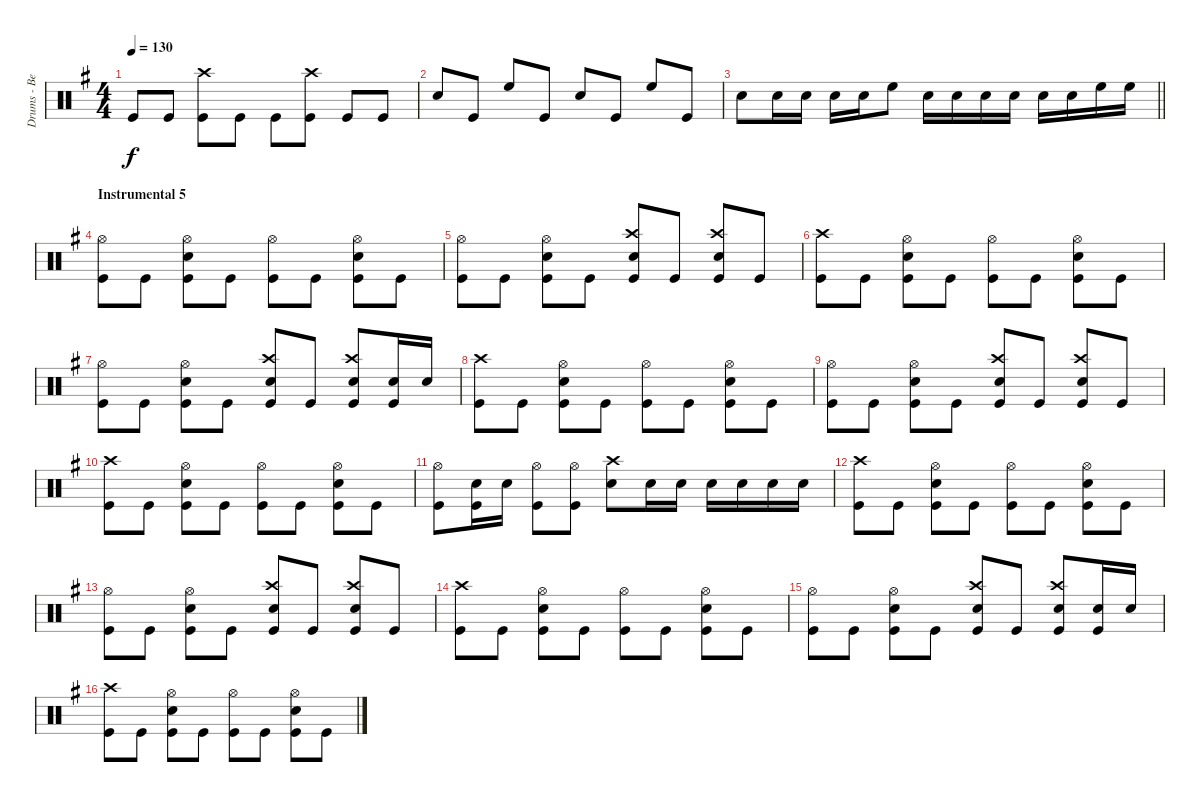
\track ("Drums - Ben Johnston" "Drums - Be") {instrument percussion}
\staff {score}
\articulation defaults
\ts (4 4)
\tempo 130
\clef neutral
\ks g "Kick (hit)".8{dy f} "Kick (hit)".8
("Crash high (hit)" "Kick (hit)").8 "Kick (hit)".8 "Kick (hit)".8 ("Crash high (hit)" "Kick (hit)").8 "Kick (hit)".8 "Kick (hit)".8 |
"Snare (hit) 2".8 "Kick (hit)".8 "High Floor Tom (hit)".8 "Kick (hit)".8 "Snare (hit) 2".8 "Kick (hit)".8 "High Floor Tom (hit)".8 "Kick (hit)".8 |
\barLineRight lightlight "Snare (hit) 2".8 "Snare (hit) 2".16 "Snare (hit) 2".16 "Snare (hit) 2".16 "Snare (hit) 2".16 "High Floor Tom (hit)".8 "Snare (hit) 2".16 "Snare (hit) 2".16 "Snare (hit) 2".16 "Snare (hit) 2".16 "Snare (hit) 2".16 "Snare (hit) 2".16 "High Floor Tom (hit)".16 "High Floor Tom (hit)".16
|
\section ("" "Instrumental 5")
("Hi-Hat (open)" "Kick (hit)").8 "Kick (hit)".8 ("Hi-Hat (open)" "Snare (hit) 2" "Kick (hit)").8 "Kick (hit)".8 ("Hi-Hat (open)" "Kick (hit)").8 "Kick (hit)".8 ("Hi-Hat (open)" "Snare (hit) 2" "Kick (hit)").8 "Kick (hit)".8 |
("Hi-Hat (open)" "Kick (hit)").8 "Kick (hit)".8 ("Hi-Hat (open)" "Snare (hit) 2" "Kick (hit)").8 "Kick (hit)".8 ("Crash high (hit)" "Snare (hit) 2" "Kick (hit)").8 "Kick (hit)".8 ("Crash high (hit)" "Snare (hit) 2" "Kick (hit)").8 "Kick (hit)".8 |
("Crash high (hit)" "Kick (hit)").8 "Kick (hit)".8 ("Hi-Hat (open)" "Snare (hit) 2" "Kick (hit)").8 "Kick (hit)".8 ("Hi-Hat (open)" "Kick (hit)").8 "Kick (hit)".8 ("Hi-Hat (open)" "Snare (hit) 2" "Kick (hit)").8 "Kick (hit)".8 |
("Hi-Hat (open)" "Kick (hit)").8 "Kick (hit)".8 ("Hi-Hat (open)" "Snare (hit) 2" "Kick (hit)").8 "Kick (hit)".8 ("Crash high (hit)" "Snare (hit) 2" "Kick (hit)").8 "Kick (hit)".8 ("Crash high (hit)" "Snare (hit) 2" "Kick (hit)").8 ("Snare (hit) 2" "Kick (hit)").16 "Snare (hit) 2".16 |
("Crash high (hit)" "Kick (hit)").8 "Kick (hit)".8 ("Hi-Hat (open)" "Snare (hit) 2" "Kick (hit)").8 "Kick (hit)".8 ("Hi-Hat (open)" "Kick (hit)").8 "Kick (hit)".8 ("Hi-Hat (open)" "Snare (hit) 2" "Kick (hit)").8 "Kick (hit)".8 |
("Hi-Hat (open)" "Kick (hit)").8 "Kick (hit)".8 ("Hi-Hat (open)" "Snare (hit) 2" "Kick (hit)").8 "Kick (hit)".8 ("Crash high (hit)" "Snare (hit) 2" "Kick (hit)").8 "Kick (hit)".8 ("Crash high (hit)" "Snare (hit) 2" "Kick (hit)").8 "Kick (hit)".8 |
("Crash high (hit)" "Kick (hit)").8 "Kick (hit)".8 ("Hi-Hat (open)" "Snare (hit) 2" "Kick (hit)").8 "Kick (hit)".8 ("Hi-Hat (open)" "Kick (hit)").8 "Kick (hit)".8 ("Hi-Hat (open)" "Snare (hit) 2" "Kick (hit)").8 "Kick (hit)".8 |
("Hi-Hat (open)" "Kick (hit)").8 ("Snare (hit) 2" "Kick (hit)").16 "Snare (hit) 2".16 ("Hi-Hat (open)" "Kick (hit)").8 ("Hi-Hat (open)" "Kick (hit)").8 ("Crash high (hit)" "Snare (hit) 2").8 "Snare (hit) 2".16 "Snare (hit) 2".16 "Snare (hit) 2".16 "Snare (hit) 2".16 "Snare (hit) 2".16 "Snare (hit) 2".16 |
("Crash high (hit)" "Kick (hit)").8 "Kick (hit)".8 ("Hi-Hat (open)" "Snare (hit) 2" "Kick (hit)").8 "Kick (hit)".8 ("Hi-Hat (open)" "Kick (hit)").8 "Kick (hit)".8 ("Hi-Hat (open)" "Snare (hit) 2" "Kick (hit)").8 "Kick (hit)".8 |
("Hi-Hat (open)" "Kick (hit)").8 "Kick (hit)".8 ("Hi-Hat (open)" "Snare (hit) 2" "Kick (hit)").8 "Kick (hit)".8 ("Crash high (hit)" "Snare (hit) 2" "Kick (hit)").8 "Kick (hit)".8 ("Crash high (hit)" "Snare (hit) 2" "Kick (hit)").8 "Kick (hit)".8 |
("Crash high (hit)" "Kick (hit)").8 "Kick (hit)".8 ("Hi-Hat (open)" "Snare (hit) 2" "Kick (hit)").8 "Kick (hit)".8 ("Hi-Hat (open)" "Kick (hit)").8 "Kick (hit)".8 ("Hi-Hat (open)" "Snare (hit) 2" "Kick (hit)").8 "Kick (hit)".8 |
("Hi-Hat (open)" "Kick (hit)").8 "Kick (hit)".8 ("Hi-Hat (open)" "Snare (hit) 2" "Kick (hit)").8 "Kick (hit)".8 ("Crash high (hit)" "Snare (hit) 2" "Kick (hit)").8 "Kick (hit)".8 ("Crash high (hit)" "Snare (hit) 2" "Kick (hit)").8 ("Snare (hit) 2" "Kick (hit)").16 "Snare (hit) 2".16 |
("Crash high (hit)" "Kick (hit)").8 "Kick (hit)".8 ("Hi-Hat (open)" "Snare (hit) 2" "Kick (hit)").8 "Kick (hit)".8 ("Hi-Hat (open)" "Kick (hit)").8 "Kick (hit)".8 ("Hi-Hat (open)" "Snare (hit) 2" "Kick (hit)").8 "Kick (hit)".8
